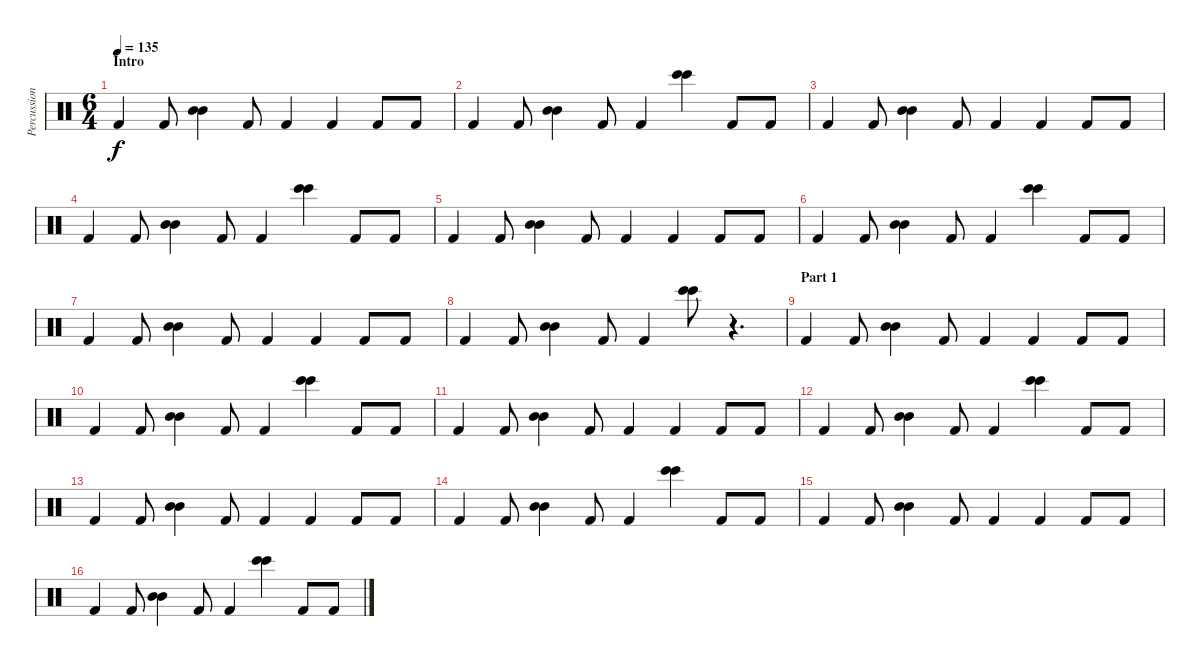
\track ("Percussions" "Percussion") {instrument percussion}
\staff {score}
\articulation defaults
\ts (6 4)
\section ("" "Intro")
\tempo 135
\clef neutral
\ks c "Kick (hit) 2".4{dy f} "Kick (hit) 2".8
("Mid Tom (hit)" "Mid Tom (hit)").4 "Kick (hit) 2".8 "Kick (hit) 2".4 "Kick (hit) 2".4 "Kick (hit) 2".8 "Kick (hit) 2".8 |
"Kick (hit) 2".4 "Kick (hit) 2".8 ("Mid Tom (hit)" "Mid Tom (hit)").4 "Kick (hit) 2".8 "Kick (hit) 2".4 ("Bongo High (hit)" "Bongo High (hit)").4 "Kick (hit) 2".8 "Kick (hit) 2".8 |
"Kick (hit) 2".4 "Kick (hit) 2".8 ("Mid Tom (hit)" "Mid Tom (hit)").4 "Kick (hit) 2".8 "Kick (hit) 2".4 "Kick (hit) 2".4 "Kick (hit) 2".8 "Kick (hit) 2".8 |
"Kick (hit) 2".4 "Kick (hit) 2".8 ("Mid Tom (hit)" "Mid Tom (hit)").4 "Kick (hit) 2".8 "Kick (hit) 2".4 ("Bongo High (hit)" "Bongo High (hit)").4 "Kick (hit) 2".8 "Kick (hit) 2".8 |
"Kick (hit) 2".4 "Kick (hit) 2".8 ("Mid Tom (hit)" "Mid Tom (hit)").4 "Kick (hit) 2".8 "Kick (hit) 2".4 "Kick (hit) 2".4 "Kick (hit) 2".8 "Kick (hit) 2".8 |
"Kick (hit) 2".4 "Kick (hit) 2".8 ("Mid Tom (hit)" "Mid Tom (hit)").4 "Kick (hit) 2".8 "Kick (hit) 2".4 ("Bongo High (hit)" "Bongo High (hit)").4 "Kick (hit) 2".8 "Kick (hit) 2".8 |
"Kick (hit) 2".4 "Kick (hit) 2".8 ("Mid Tom (hit)" "Mid Tom (hit)").4 "Kick (hit) 2".8 "Kick (hit) 2".4 "Kick (hit) 2".4 "Kick (hit) 2".8 "Kick (hit) 2".8 |
"Kick (hit) 2".4 "Kick (hit) 2".8 ("Mid Tom (hit)" "Mid Tom (hit)").4 "Kick (hit) 2".8 "Kick (hit) 2".4 ("Bongo High (hit)" "Bongo High (hit)").8 r.4{d} |
\section ("" "Part 1")
"Kick (hit) 2".4 "Kick (hit) 2".8 ("Mid Tom (hit)" "Mid Tom (hit)").4 "Kick (hit) 2".8 "Kick (hit) 2".4 "Kick (hit) 2".4 "Kick (hit) 2".8 "Kick (hit) 2".8 |
"Kick (hit) 2".4 "Kick (hit) 2".8 ("Mid Tom (hit)" "Mid Tom (hit)").4 "Kick (hit) 2".8 "Kick (hit) 2".4 ("Bongo High (hit)" "Bongo High (hit)").4 "Kick (hit) 2".8 "Kick (hit) 2".8 |
"Kick (hit) 2".4 "Kick (hit) 2".8 ("Mid Tom (hit)" "Mid Tom (hit)").4 "Kick (hit) 2".8 "Kick (hit) 2".4 "Kick (hit) 2".4 "Kick (hit) 2".8 "Kick (hit) 2".8 |
"Kick (hit) 2".4 "Kick (hit) 2".8 ("Mid Tom (hit)" "Mid Tom (hit)").4 "Kick (hit) 2".8 "Kick (hit) 2".4 ("Bongo High (hit)" "Bongo High (hit)").4 "Kick (hit) 2".8 "Kick (hit) 2".8 |
"Kick (hit) 2".4 "Kick (hit) 2".8 ("Mid Tom (hit)" "Mid Tom (hit)").4 "Kick (hit) 2".8 "Kick (hit) 2".4 "Kick (hit) 2".4 "Kick (hit) 2".8 "Kick (hit) 2".8 |
"Kick (hit) 2".4 "Kick (hit) 2".8 ("Mid Tom (hit)" "Mid Tom (hit)").4 "Kick (hit) 2".8 "Kick (hit) 2".4 ("Bongo High (hit)" "Bongo High (hit)").4 "Kick (hit) 2".8 "Kick (hit) 2".8 |
"Kick (hit) 2".4 "Kick (hit) 2".8 ("Mid Tom (hit)" "Mid Tom (hit)").4 "Kick (hit) 2".8 "Kick (hit) 2".4 "Kick (hit) 2".4 "Kick (hit) 2".8 "Kick (hit) 2".8 |
"Kick (hit) 2".4 "Kick (hit) 2".8 ("Mid Tom (hit)" "Mid Tom (hit)").4 "Kick (hit) 2".8 "Kick (hit) 2".4 ("Bongo High (hit)" "Bongo High (hit)").4 "Kick (hit) 2".8 "Kick (hit) 2".8
